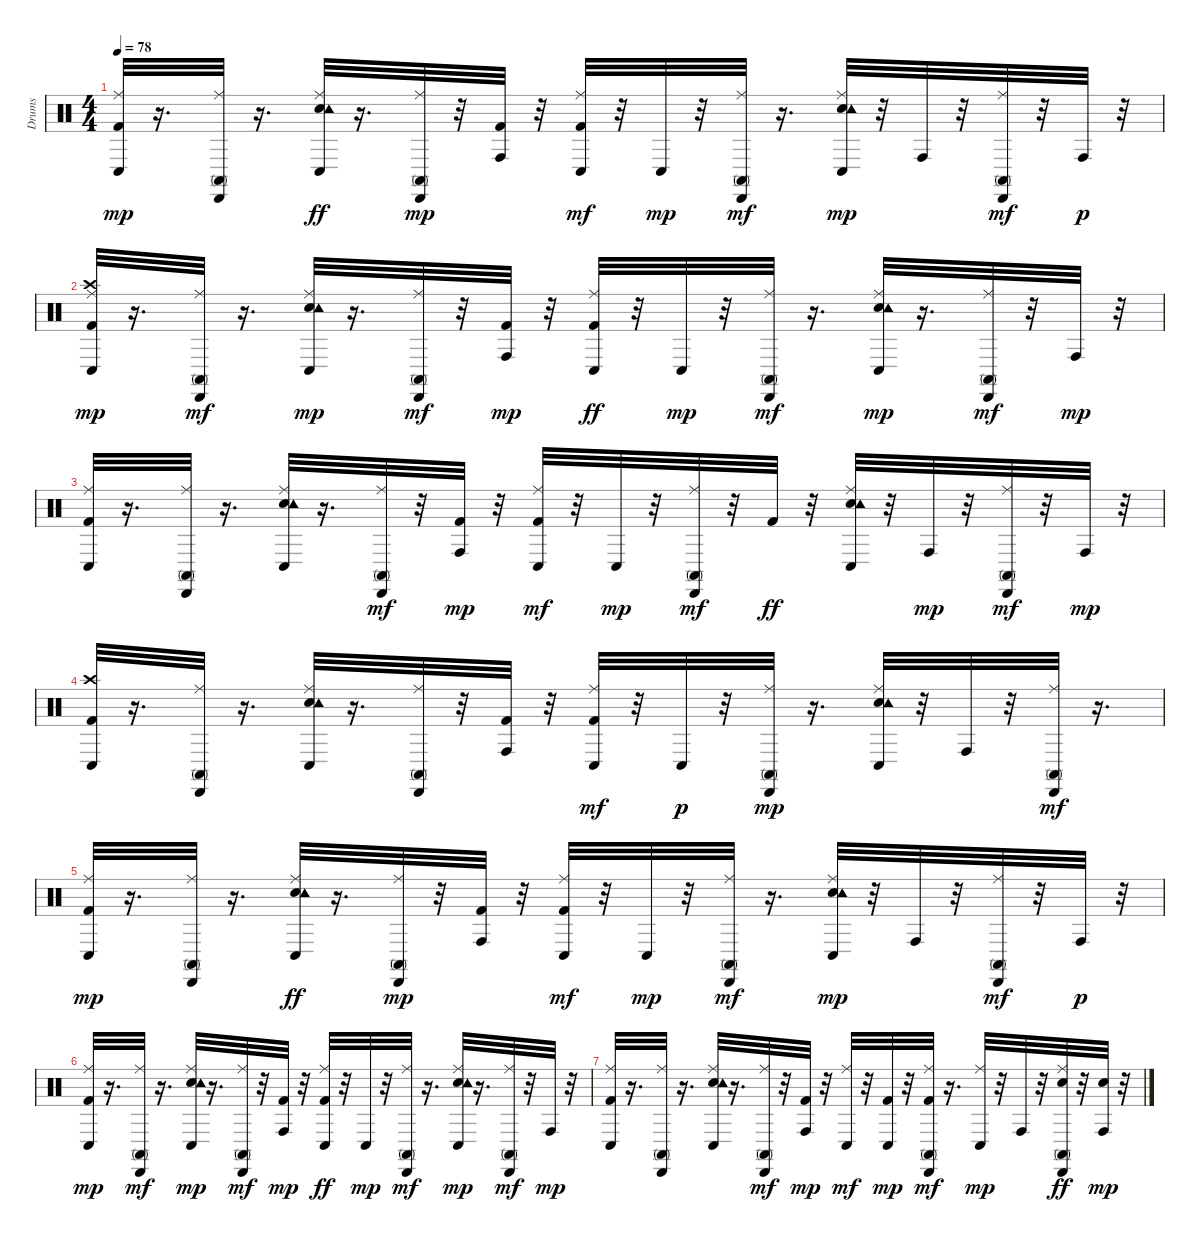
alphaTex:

\track ("Drums   " "Drums   ") {instrument percussion}
\staff {score}
\articulation defaults
\ts (4 4)
\tempo 78
\clef neutral
\ks c
("Kick (hit) 2" "Ride (middle)" "Conga low (hit)").32{dy mp} r.16{d} ("Ride (middle)" "Conga high (mute)" "Cabasa (hit)").32 r.16{d} ("Ride (middle)" "Conga low (hit)" "Snare (hit) 2" "Tambourine (hit)").32{dy ff} r.16{d} ("Conga high (mute)" "Ride (middle)" "Cabasa (hit)").32{dy mp} r.32 ("Kick (hit) 2" "Conga high (hit)").32 r.32 ("Kick (hit) 2" "Conga low (hit)" "Ride (middle)").32{dy mf} r.32 "Conga low (hit)".32{dy mp} r.32 ("Conga high (mute)" "Ride (middle)" "Cabasa (hit)").32{dy mf} r.16{d} ("Snare (hit) 2" "Tambourine (hit)" "Ride (middle)" "Conga low (hit)").32{dy mp} r.32 "Conga high (hit)".32 r.32 ("Cabasa (hit)" "Ride (middle)" "Conga high (mute)").32{dy mf} r.32 "Conga high (hit)".32{dy p} r.32 |
("Crash high (hit)" "Ride (middle)" "Kick (hit) 2" "Conga low (hit)").32{dy mp} r.16{d} ("Cabasa (hit)" "Ride (middle)" "Conga high (mute)").32{dy mf} r.16{d} ("Snare (hit) 2" "Tambourine (hit)" "Ride (middle)" "Conga low (hit)").32{dy mp} r.16{d} ("Cabasa (hit)" "Ride (middle)" "Conga high (mute)").32{dy mf} r.32 ("Kick (hit) 2" "Conga high (hit)").32{dy mp} r.32 ("Conga low (hit)" "Ride (middle)" "Kick (hit) 2").32{dy ff} r.32 "Conga low (hit)".32{dy mp} r.32 ("Ride (middle)" "Cabasa (hit)" "Conga high (mute)").32{dy mf} r.16{d} ("Snare (hit) 2" "Tambourine (hit)" "Ride (middle)" "Conga low (hit)").32{dy mp} r.16{d} ("Conga high (mute)" "Ride (middle)" "Cabasa (hit)").32{dy mf} r.32 "Conga high (hit)".32{dy mp} r.32 |
("Ride (middle)" "Kick (hit) 2" "Conga low (hit)").32 r.16{d} ("Ride (middle)" "Conga high (mute)" "Cabasa (hit)").32 r.16{d} ("Snare (hit) 2" "Tambourine (hit)" "Ride (middle)" "Conga low (hit)").32 r.16{d} ("Ride (middle)" "Conga high (mute)" "Cabasa (hit)").32{dy mf} r.32 ("Kick (hit) 2" "Conga high (hit)").32{dy mp} r.32 ("Conga low (hit)" "Kick (hit) 2" "Ride (middle)").32{dy mf} r.32 "Conga low (hit)".32{dy mp} r.32 ("Cabasa (hit)" "Conga high (mute)" "Ride (middle)").32{dy mf} r.32 "Kick (hit) 2".32{dy ff} r.32 ("Ride (middle)" "Conga low (hit)" "Snare (hit) 2" "Tambourine (hit)").32 r.32 "Conga high (hit)".32{dy mp} r.32 ("Conga high (mute)" "Cabasa (hit)" "Ride (middle)").32{dy mf} r.32 "Conga high (hit)".32{dy mp} r.32 |
("Kick (hit) 2" "Crash high (hit)" "Conga low (hit)").32 r.16{d} ("Ride (middle)" "Conga high (mute)" "Cabasa (hit)").32 r.16{d} ("Snare (hit) 2" "Ride (middle)" "Tambourine (hit)" "Conga low (hit)").32 r.16{d} ("Ride (middle)" "Conga high (mute)" "Cabasa (hit)").32 r.32 ("Kick (hit) 2" "Conga high (hit)").32 r.32 ("Conga low (hit)" "Kick (hit) 2" "Ride (middle)").32{dy mf} r.32 "Conga low (hit)".32{dy p} r.32 ("Ride (middle)" "Conga high (mute)" "Cabasa (hit)").32{dy mp} r.16{d} ("Snare (hit) 2" "Tambourine (hit)" "Ride (middle)" "Conga low (hit)").32 r.32 "Conga high (hit)".32 r.32 ("Conga high (mute)" "Ride (middle)" "Cabasa (hit)").32{dy mf} r.16{d} |
("Kick (hit) 2" "Ride (middle)" "Conga low (hit)").32{dy mp} r.16{d} ("Ride (middle)" "Conga high (mute)" "Cabasa (hit)").32 r.16{d} ("Ride (middle)" "Conga low (hit)" "Snare (hit) 2" "Tambourine (hit)").32{dy ff} r.16{d} ("Conga high (mute)" "Ride (middle)" "Cabasa (hit)").32{dy mp} r.32 ("Kick (hit) 2" "Conga high (hit)").32 r.32 ("Kick (hit) 2" "Conga low (hit)" "Ride (middle)").32{dy mf} r.32 "Conga low (hit)".32{dy mp} r.32 ("Conga high (mute)" "Ride (middle)" "Cabasa (hit)").32{dy mf} r.16{d} ("Snare (hit) 2" "Tambourine (hit)" "Ride (middle)" "Conga low (hit)").32{dy mp} r.32 "Conga high (hit)".32 r.32 ("Cabasa (hit)" "Ride (middle)" "Conga high (mute)").32{dy mf} r.32 "Conga high (hit)".32{dy p} r.32 |
("Ride (middle)" "Kick (hit) 2" "Conga low (hit)").32{dy mp} r.16{d} ("Cabasa (hit)" "Ride (middle)" "Conga high (mute)").32{dy mf} r.16{d} ("Snare (hit) 2" "Tambourine (hit)" "Ride (middle)" "Conga low (hit)").32{dy mp} r.16{d} ("Cabasa (hit)" "Ride (middle)" "Conga high (mute)").32{dy mf} r.32 ("Kick (hit) 2" "Conga high (hit)").32{dy mp} r.32 ("Conga low (hit)" "Ride (middle)" "Kick (hit) 2").32{dy ff} r.32 "Conga low (hit)".32{dy mp} r.32 ("Ride (middle)" "Cabasa (hit)" "Conga high (mute)").32{dy mf} r.16{d} ("Snare (hit) 2" "Tambourine (hit)" "Ride (middle)" "Conga low (hit)").32{dy mp} r.16{d} ("Conga high (mute)" "Ride (middle)" "Cabasa (hit)").32{dy mf} r.32 "Conga high (hit)".32{dy mp} r.32 |
("Ride (middle)" "Kick (hit) 2" "Conga low (hit)").32 r.16{d} ("Ride (middle)" "Conga high (mute)" "Cabasa (hit)").32 r.16{d} ("Snare (hit) 2" "Tambourine (hit)" "Ride (middle)" "Conga low (hit)").32 r.16{d} ("Ride (middle)" "Conga high (mute)" "Cabasa (hit)").32{dy mf} r.32 ("Kick (hit) 2" "Conga high (hit)").32{dy mp} r.32 ("Conga low (hit)" "Ride (middle)").32{dy mf} r.32 ("Conga low (hit)" "Kick (hit) 2").32{dy mp} r.32 ("Cabasa (hit)" "Kick (hit) 2" "Conga high (mute)" "Ride (middle)").32{dy mf} r.16{d} ("Ride (middle)" "Conga low (hit)").32{dy mp} r.32 "Conga high (hit)".32 r.32 ("Conga high (mute)" "Cabasa (hit)" "Snare (hit) 2" "Ride (middle)").32{dy ff} r.32 ("Snare (hit) 2" "Conga high (hit)").32{dy mp} r.32
